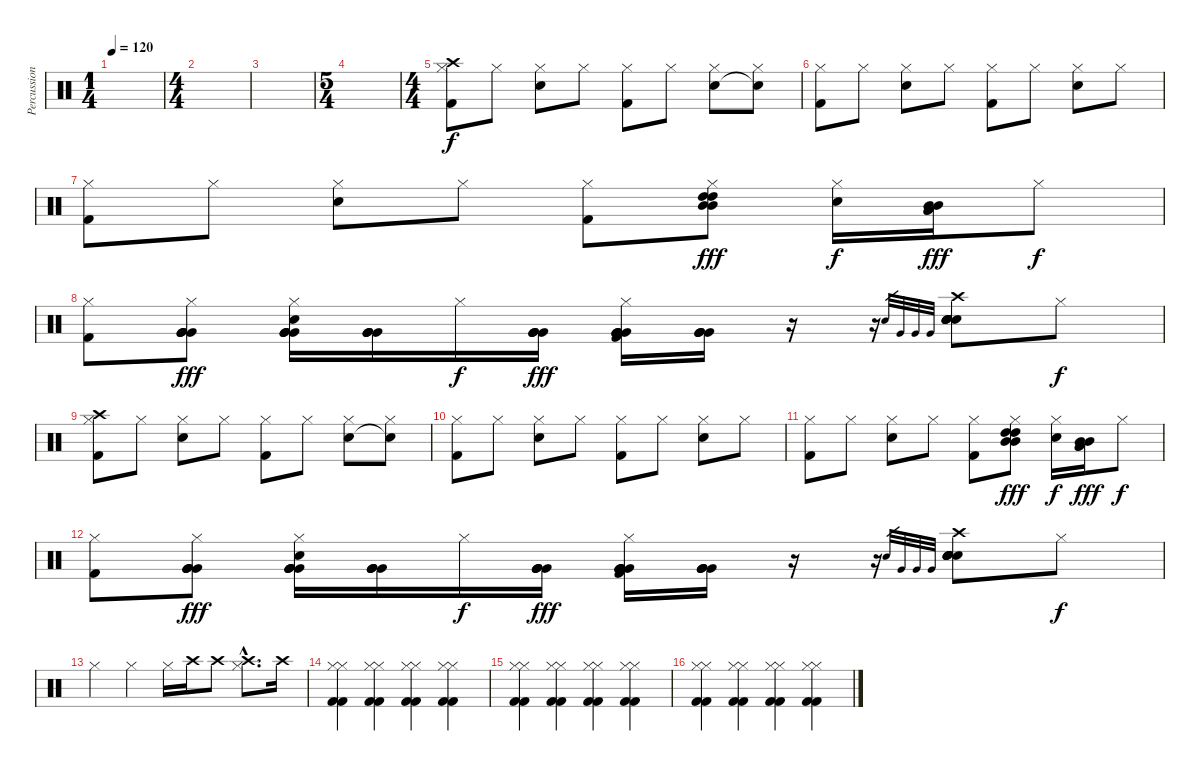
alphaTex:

\track ("Percussion" "Percussion") {instrument percussion}
\staff {score}
\articulation defaults
\ts (1 4)
\tempo 120
\clef neutral
\ks c
|
\ts (4 4)
|
|
\ts (5 4)
|
\ts (4 4)
("Hi-Hat (closed)" "Kick (hit) 2" "Crash high (hit)").8 "Hi-Hat (closed)".8 ("Hi-Hat (closed)" "Electric Snare (hit)").8 "Hi-Hat (closed)".8 ("Hi-Hat (closed)" "Kick (hit) 2").8 "Hi-Hat (closed)".8 ("Hi-Hat (closed)" "Electric Snare (hit)").8 ("Hi-Hat (closed)" "Snare (hit)"{t}).8 |
("Hi-Hat (closed)" "Kick (hit) 2").8 "Hi-Hat (closed)".8 ("Hi-Hat (closed)" "Electric Snare (hit)").8 "Hi-Hat (closed)".8 ("Hi-Hat (closed)" "Kick (hit) 2").8 "Hi-Hat (closed)".8 ("Hi-Hat (closed)" "Electric Snare (hit)").8 "Hi-Hat (closed)".8 |
("Hi-Hat (closed)" "Kick (hit) 2").8 "Hi-Hat (closed)".8 ("Hi-Hat (closed)" "Electric Snare (hit)").8 "Hi-Hat (closed)".8 ("Hi-Hat (closed)" "Kick (hit) 2").8 ("Hi-Hat (closed)" "High Tom (hit)" "High Tom (hit)" "Mid Tom (hit)" "Mid Tom (hit)").8{dy fff} ("Hi-Hat (closed)" "Electric Snare (hit)").16{dy f} ("Mid Tom (hit)" "Mid Tom (hit)" "Low Tom (hit)" "Low Tom (hit)").16{dy fff} "Hi-Hat (closed)".8{dy f} |
("Hi-Hat (closed)" "Kick (hit) 2").8 ("Hi-Hat (closed)" "Very Low Tom (hit)" "Very Low Tom (hit)" "Very Low Tom (hit)" "Very Low Tom (hit)").8{dy fff} ("Hi-Hat (closed)" "Electric Snare (hit)" "Very Low Tom (hit)" "Very Low Tom (hit)" "Very Low Tom (hit)" "Very Low Tom (hit)").16 ("Very Low Tom (hit)" "Very Low Tom (hit)" "Very Low Tom (hit)" "Very Low Tom (hit)").16 "Hi-Hat (closed)".16{dy f} ("Very Low Tom (hit)" "Very Low Tom (hit)" "Very Low Tom (hit)" "Very Low Tom (hit)").16{dy fff} ("Hi-Hat (closed)" "Kick (hit) 2" "Very Low Tom (hit)" "Very Low Tom (hit)" "Very Low Tom (hit)" "Very Low Tom (hit)").16 ("Very Low Tom (hit)" "Very Low Tom (hit)" "Very Low Tom (hit)" "Very Low Tom (hit)").16 r.16 r.16 "Snare (hit)".32{gr} "Very Low Tom (hit)".32{gr} "Very Low Tom (hit)".32{gr} "Very Low Tom (hit)".32{gr} ("Crash high (hit)" "Electric Snare (hit)" "Electric Snare (hit)" "Electric Snare (hit)" "Electric Snare (hit)" "Electric Snare (hit)").8 "Hi-Hat (closed)".8{dy f} |
("Hi-Hat (closed)" "Kick (hit) 2" "Crash high (hit)").8 "Hi-Hat (closed)".8 ("Hi-Hat (closed)" "Electric Snare (hit)").8 "Hi-Hat (closed)".8 ("Hi-Hat (closed)" "Kick (hit) 2").8 "Hi-Hat (closed)".8 ("Hi-Hat (closed)" "Electric Snare (hit)").8 ("Hi-Hat (closed)" "Snare (hit)"{t}).8 |
("Hi-Hat (closed)" "Kick (hit) 2").8 "Hi-Hat (closed)".8 ("Hi-Hat (closed)" "Electric Snare (hit)").8 "Hi-Hat (closed)".8 ("Hi-Hat (closed)" "Kick (hit) 2").8 "Hi-Hat (closed)".8 ("Hi-Hat (closed)" "Electric Snare (hit)").8 "Hi-Hat (closed)".8 |
("Hi-Hat (closed)" "Kick (hit) 2").8 "Hi-Hat (closed)".8 ("Hi-Hat (closed)" "Electric Snare (hit)").8 "Hi-Hat (closed)".8 ("Hi-Hat (closed)" "Kick (hit) 2").8 ("Hi-Hat (closed)" "High Tom (hit)" "High Tom (hit)" "Mid Tom (hit)" "Mid Tom (hit)").8{dy fff} ("Hi-Hat (closed)" "Electric Snare (hit)").16{dy f} ("Mid Tom (hit)" "Mid Tom (hit)" "Low Tom (hit)" "Low Tom (hit)").16{dy fff} "Hi-Hat (closed)".8{dy f} |
("Hi-Hat (closed)" "Kick (hit) 2").8 ("Hi-Hat (closed)" "Very Low Tom (hit)" "Very Low Tom (hit)" "Very Low Tom (hit)" "Very Low Tom (hit)").8{dy fff} ("Hi-Hat (closed)" "Electric Snare (hit)" "Very Low Tom (hit)" "Very Low Tom (hit)" "Very Low Tom (hit)" "Very Low Tom (hit)").16 ("Very Low Tom (hit)" "Very Low Tom (hit)" "Very Low Tom (hit)" "Very Low Tom (hit)").16 "Hi-Hat (closed)".16{dy f} ("Very Low Tom (hit)" "Very Low Tom (hit)" "Very Low Tom (hit)" "Very Low Tom (hit)").16{dy fff} ("Hi-Hat (closed)" "Kick (hit) 2" "Very Low Tom (hit)" "Very Low Tom (hit)" "Very Low Tom (hit)" "Very Low Tom (hit)").16 ("Very Low Tom (hit)" "Very Low Tom (hit)" "Very Low Tom (hit)" "Very Low Tom (hit)").16 r.16 r.16 "Snare (hit)".32{gr} "Very Low Tom (hit)".32{gr} "Very Low Tom (hit)".32{gr} "Very Low Tom (hit)".32{gr} ("Crash high (hit)" "Electric Snare (hit)" "Electric Snare (hit)" "Electric Snare (hit)" "Electric Snare (hit)" "Electric Snare (hit)").8 "Hi-Hat (closed)".8{dy f} |
"Hi-Hat (closed)".4 "Hi-Hat (closed)".4 "Hi-Hat (closed)".16 "Crash high (hit)".16 "Crash high (hit)".8 ("Hi-Hat (closed)"{hac} "Crash high (hit)"{hac}).8{d} "Crash high (hit)".16 |
("Kick (hit) 2" "Kick (hit) 2" "Hi-Hat (closed)" "Hi-Hat (closed)").4 ("Kick (hit) 2" "Kick (hit) 2" "Hi-Hat (closed)" "Hi-Hat (closed)").4 ("Kick (hit) 2" "Kick (hit) 2" "Hi-Hat (closed)" "Hi-Hat (closed)").4 ("Kick (hit) 2" "Kick (hit) 2" "Hi-Hat (closed)" "Hi-Hat (closed)").4 |
("Kick (hit) 2" "Kick (hit) 2" "Hi-Hat (closed)" "Hi-Hat (closed)").4 ("Kick (hit) 2" "Kick (hit) 2" "Hi-Hat (closed)" "Hi-Hat (closed)").4 ("Kick (hit) 2" "Kick (hit) 2" "Hi-Hat (closed)" "Hi-Hat (closed)").4 ("Kick (hit) 2" "Kick (hit) 2" "Hi-Hat (closed)" "Hi-Hat (closed)").4 |
("Kick (hit) 2" "Kick (hit) 2" "Hi-Hat (closed)" "Hi-Hat (closed)").4 ("Kick (hit) 2" "Kick (hit) 2" "Hi-Hat (closed)" "Hi-Hat (closed)").4 ("Kick (hit) 2" "Kick (hit) 2" "Hi-Hat (closed)" "Hi-Hat (closed)").4 ("Kick (hit) 2" "Kick (hit) 2" "Hi-Hat (closed)" "Hi-Hat (closed)").4
